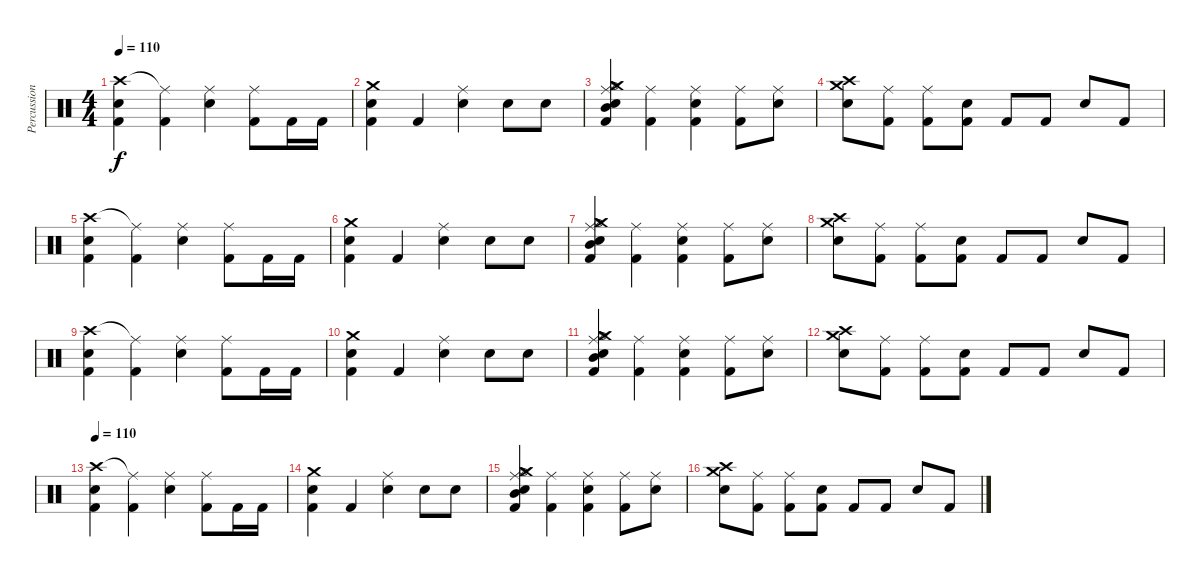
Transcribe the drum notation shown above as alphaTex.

\track ("Percussion" "Percussion") {instrument percussion}
\staff {score}
\articulation defaults
\ts (4 4)
\tempo 110
\clef neutral
\ks c
("Crash high (hit)" "Kick (hit) 2" "Snare (hit) 2").4{dy f} ("Ride (middle)"{t} "Kick (hit) 2").4 ("Ride (middle)" "Snare (hit) 2").4 ("Ride (middle)" "Kick (hit) 2").8 "Kick (hit) 2".16 "Kick (hit) 2".16 |
("Crash medium (hit)" "Snare (hit) 2" "Kick (hit) 2").4 "Kick (hit) 2".4 ("Ride (middle)" "Snare (hit) 2").4 "Snare (hit) 2".8 "Snare (hit) 2".8 |
("Hi-Hat (open)" "Crash medium (hit)" "Ride (middle)" "Mid Tom (hit)" "Snare (hit) 2" "Kick (hit) 2").4 ("Ride (middle)" "Kick (hit) 2").4 ("Ride (middle)" "Kick (hit) 2" "Snare (hit) 2").4 ("Ride (middle)" "Kick (hit) 2").8 ("Snare (hit) 2" "Ride (middle)").8 |
("Snare (hit) 2" "Crash medium (hit)" "Crash high (hit)").8 ("Kick (hit) 2" "Ride (middle)").8 ("Kick (hit) 2" "Ride (middle)").8 ("Snare (hit) 2" "Kick (hit) 2").8 "Kick (hit) 2".8 "Kick (hit) 2".8 "Snare (hit) 2".8 "Kick (hit) 2".8 |
("Crash high (hit)" "Kick (hit) 2" "Snare (hit) 2").4 ("Ride (middle)"{t} "Kick (hit) 2").4 ("Ride (middle)" "Snare (hit) 2").4 ("Ride (middle)" "Kick (hit) 2").8 "Kick (hit) 2".16 "Kick (hit) 2".16 |
("Crash medium (hit)" "Snare (hit) 2" "Kick (hit) 2").4 "Kick (hit) 2".4 ("Ride (middle)" "Snare (hit) 2").4 "Snare (hit) 2".8 "Snare (hit) 2".8 |
("Hi-Hat (open)" "Crash medium (hit)" "Ride (middle)" "Mid Tom (hit)" "Snare (hit) 2" "Kick (hit) 2").4 ("Ride (middle)" "Kick (hit) 2").4 ("Ride (middle)" "Kick (hit) 2" "Snare (hit) 2").4 ("Ride (middle)" "Kick (hit) 2").8 ("Snare (hit) 2" "Ride (middle)").8 |
("Snare (hit) 2" "Crash medium (hit)" "Crash high (hit)").8 ("Kick (hit) 2" "Ride (middle)").8 ("Kick (hit) 2" "Ride (middle)").8 ("Snare (hit) 2" "Kick (hit) 2").8 "Kick (hit) 2".8 "Kick (hit) 2".8 "Snare (hit) 2".8 "Kick (hit) 2".8 |
("Crash high (hit)" "Kick (hit) 2" "Snare (hit) 2").4 ("Ride (middle)"{t} "Kick (hit) 2").4 ("Ride (middle)" "Snare (hit) 2").4 ("Ride (middle)" "Kick (hit) 2").8 "Kick (hit) 2".16 "Kick (hit) 2".16 |
("Crash medium (hit)" "Snare (hit) 2" "Kick (hit) 2").4 "Kick (hit) 2".4 ("Ride (middle)" "Snare (hit) 2").4 "Snare (hit) 2".8 "Snare (hit) 2".8 |
("Hi-Hat (open)" "Crash medium (hit)" "Ride (middle)" "Mid Tom (hit)" "Snare (hit) 2" "Kick (hit) 2").4 ("Ride (middle)" "Kick (hit) 2").4 ("Ride (middle)" "Kick (hit) 2" "Snare (hit) 2").4 ("Ride (middle)" "Kick (hit) 2").8 ("Snare (hit) 2" "Ride (middle)").8 |
("Snare (hit) 2" "Crash medium (hit)" "Crash high (hit)").8 ("Kick (hit) 2" "Ride (middle)").8 ("Kick (hit) 2" "Ride (middle)").8 ("Snare (hit) 2" "Kick (hit) 2").8 "Kick (hit) 2".8 "Kick (hit) 2".8 "Snare (hit) 2".8 "Kick (hit) 2".8 |
\tempo 110
("Crash high (hit)" "Kick (hit) 2" "Snare (hit) 2").4 ("Ride (middle)"{t} "Kick (hit) 2").4 ("Ride (middle)" "Snare (hit) 2").4 ("Ride (middle)" "Kick (hit) 2").8 "Kick (hit) 2".16 "Kick (hit) 2".16 |
("Crash medium (hit)" "Snare (hit) 2" "Kick (hit) 2").4 "Kick (hit) 2".4 ("Ride (middle)" "Snare (hit) 2").4 "Snare (hit) 2".8 "Snare (hit) 2".8 |
("Hi-Hat (open)" "Crash medium (hit)" "Ride (middle)" "Mid Tom (hit)" "Snare (hit) 2" "Kick (hit) 2").4 ("Ride (middle)" "Kick (hit) 2").4 ("Ride (middle)" "Kick (hit) 2" "Snare (hit) 2").4 ("Ride (middle)" "Kick (hit) 2").8 ("Snare (hit) 2" "Ride (middle)").8 |
("Snare (hit) 2" "Crash medium (hit)" "Crash high (hit)").8 ("Kick (hit) 2" "Ride (middle)").8 ("Kick (hit) 2" "Ride (middle)").8 ("Snare (hit) 2" "Kick (hit) 2").8 "Kick (hit) 2".8 "Kick (hit) 2".8 "Snare (hit) 2".8 "Kick (hit) 2".8
